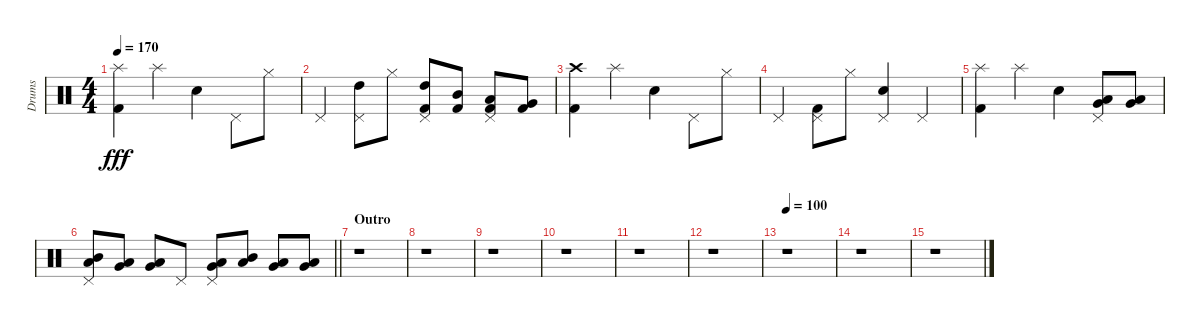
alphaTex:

\track ("Drums" "Drums") {instrument percussion}
\staff {score}
\articulation defaults
\ts (4 4)
\tempo 170
\clef neutral
\ks c
("Splash (hit)" "Kick (hit) 2").4{dy fff} "Splash (hit)".4 "Snare (hit) 2".4 "Pedal Hi-Hat (hit)".8 "Hi-Hat (closed)".8 |
"Pedal Hi-Hat (hit)".4 ("Pedal Hi-Hat (hit)" "High Tom (hit)").8 "Hi-Hat (closed)".8 ("Pedal Hi-Hat (hit)" "High Tom (hit)" "Kick (hit) 2").8 ("Mid Tom (hit)" "Kick (hit) 2").8 ("Pedal Hi-Hat (hit)" "Low Tom (hit)" "Kick (hit) 2").8 ("Very Low Tom (hit)" "Kick (hit) 2").8 |
("Crash high (hit)" "Kick (hit) 2").4 "Splash (hit)".4 "Snare (hit) 2".4 "Pedal Hi-Hat (hit)".8 "Hi-Hat (closed)".8 |
"Pedal Hi-Hat (hit)".4 ("Pedal Hi-Hat (hit)" "Kick (hit) 2").8 "Hi-Hat (closed)".8 ("Pedal Hi-Hat (hit)" "Snare (hit) 2").4 "Pedal Hi-Hat (hit)".4 |
("Splash (hit)" "Kick (hit) 2").4 "Splash (hit)".4 "Snare (hit) 2".4 ("Pedal Hi-Hat (hit)" "Low Floor Tom (hit)" "Very Low Tom (hit)").8 ("Very Low Tom (hit)" "Low Tom (hit)").8 |
\barLineRight lightlight
("Pedal Hi-Hat (hit)" "Low Tom (hit)" "Mid Tom (hit)").8 ("Very Low Tom (hit)" "Low Tom (hit)").8 ("Low Floor Tom (hit)" "Very Low Tom (hit)").8 "Pedal Hi-Hat (hit)".8 ("Pedal Hi-Hat (hit)" "Low Tom (hit)" "Very Low Tom (hit)").8 ("Mid Tom (hit)" "Low Tom (hit)").8 ("Low Tom (hit)" "Very Low Tom (hit)").8 ("Very Low Tom (hit)" "Low Floor Tom (hit)").8 |
\section ("" "Outro")
r.1 |
r.1 |
r.1 |
r.1 |
r.1 |
r.1 |
\tempo 100
r.1 |
r.1 |
r.1
